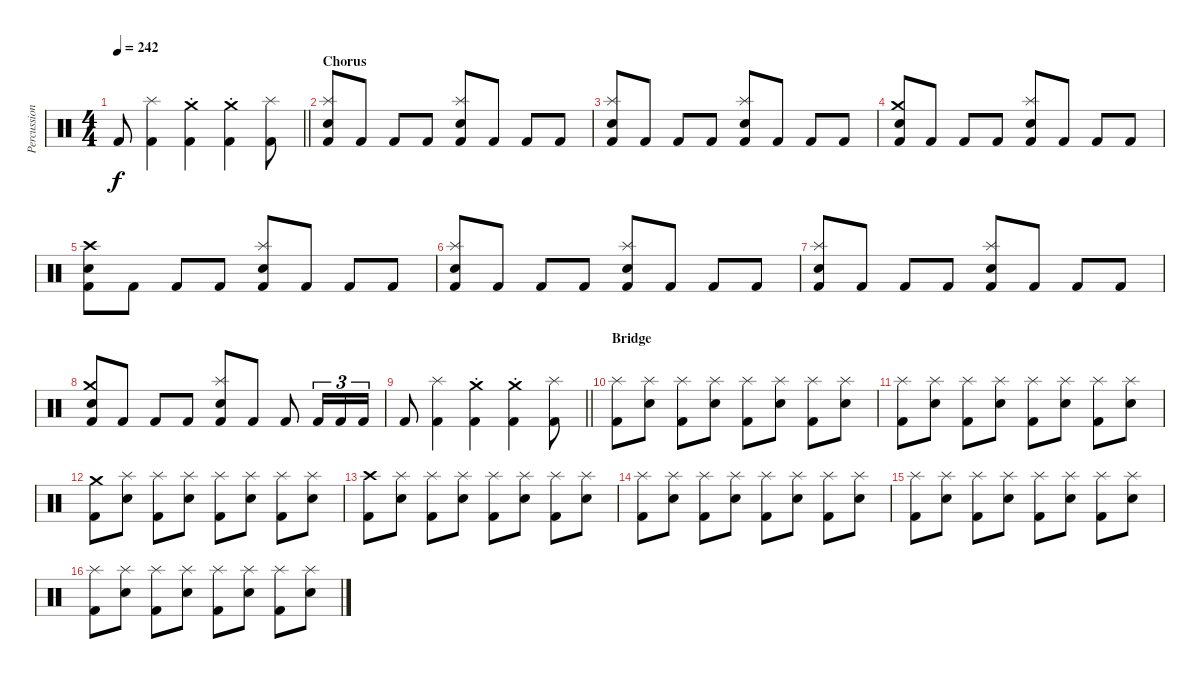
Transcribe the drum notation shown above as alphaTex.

\track ("Percussion" "Percussion") {instrument percussion}
\staff {score}
\articulation defaults
\ts (4 4)
\tempo 242
\clef neutral
\barLineRight lightlight
\ks c "Kick (hit) 2".8{dy f}
("Splash (hit)" "Kick (hit) 2").4 ("Crash medium (hit)"{st} "Kick (hit) 2").4 ("Crash medium (hit)"{st} "Kick (hit) 2").4 ("Splash (hit)" "Kick (hit) 2").8 |
\section ("" "Chorus")
("Splash (hit)" "Snare (hit) 2" "Kick (hit) 2").8 "Kick (hit) 2".8 "Kick (hit) 2".8 "Kick (hit) 2".8 ("Splash (hit)" "Snare (hit) 2" "Kick (hit) 2").8 "Kick (hit) 2".8 "Kick (hit) 2".8 "Kick (hit) 2".8 |
("Splash (hit)" "Snare (hit) 2" "Kick (hit) 2").8 "Kick (hit) 2".8 "Kick (hit) 2".8 "Kick (hit) 2".8 ("Splash (hit)" "Snare (hit) 2" "Kick (hit) 2").8 "Kick (hit) 2".8 "Kick (hit) 2".8 "Kick (hit) 2".8 |
("Crash medium (hit)" "Snare (hit) 2" "Kick (hit) 2").8 "Kick (hit) 2".8 "Kick (hit) 2".8 "Kick (hit) 2".8 ("Splash (hit)" "Snare (hit) 2" "Kick (hit) 2").8 "Kick (hit) 2".8 "Kick (hit) 2".8 "Kick (hit) 2".8 |
("Crash high (hit)" "Snare (hit) 2" "Kick (hit) 2").8 "Kick (hit) 2".8 "Kick (hit) 2".8 "Kick (hit) 2".8 ("Splash (hit)" "Snare (hit) 2" "Kick (hit) 2").8 "Kick (hit) 2".8 "Kick (hit) 2".8 "Kick (hit) 2".8 |
("Splash (hit)" "Snare (hit) 2" "Kick (hit) 2").8 "Kick (hit) 2".8 "Kick (hit) 2".8 "Kick (hit) 2".8 ("Splash (hit)" "Snare (hit) 2" "Kick (hit) 2").8 "Kick (hit) 2".8 "Kick (hit) 2".8 "Kick (hit) 2".8 |
("Splash (hit)" "Snare (hit) 2" "Kick (hit) 2").8 "Kick (hit) 2".8 "Kick (hit) 2".8 "Kick (hit) 2".8 ("Splash (hit)" "Snare (hit) 2" "Kick (hit) 2").8 "Kick (hit) 2".8 "Kick (hit) 2".8 "Kick (hit) 2".8 |
("Crash medium (hit)" "Snare (hit) 2" "Kick (hit) 2").8 "Kick (hit) 2".8 "Kick (hit) 2".8 "Kick (hit) 2".8 ("Splash (hit)" "Snare (hit) 2" "Kick (hit) 2").8 "Kick (hit) 2".8 "Kick (hit) 2".8 "Kick (hit) 2".16{tu (3 2)} "Kick (hit) 2".16{tu (3 2)} "Kick (hit) 2".16{tu (3 2)} |
\barLineRight lightlight "Kick (hit) 2".8
("Splash (hit)" "Kick (hit) 2").4 ("Crash medium (hit)"{st} "Kick (hit) 2").4 ("Crash medium (hit)"{st} "Kick (hit) 2").4 ("Splash (hit)" "Kick (hit) 2").8 |
\section ("" "Bridge")
("Splash (hit)" "Kick (hit) 2").8 ("Splash (hit)" "Snare (hit) 2").8 ("Splash (hit)" "Kick (hit) 2").8 ("Splash (hit)" "Snare (hit) 2").8 ("Splash (hit)" "Kick (hit) 2").8 ("Splash (hit)" "Snare (hit) 2").8 ("Splash (hit)" "Kick (hit) 2").8 ("Splash (hit)" "Snare (hit) 2").8 |
("Splash (hit)" "Kick (hit) 2").8 ("Splash (hit)" "Snare (hit) 2").8 ("Splash (hit)" "Kick (hit) 2").8 ("Splash (hit)" "Snare (hit) 2").8 ("Splash (hit)" "Kick (hit) 2").8 ("Splash (hit)" "Snare (hit) 2").8 ("Splash (hit)" "Kick (hit) 2").8 ("Splash (hit)" "Snare (hit) 2").8 |
("Crash medium (hit)" "Kick (hit) 2").8 ("Splash (hit)" "Snare (hit) 2").8 ("Splash (hit)" "Kick (hit) 2").8 ("Splash (hit)" "Snare (hit) 2").8 ("Splash (hit)" "Kick (hit) 2").8 ("Splash (hit)" "Snare (hit) 2").8 ("Splash (hit)" "Kick (hit) 2").8 ("Splash (hit)" "Snare (hit) 2").8 |
("Crash high (hit)" "Kick (hit) 2").8 ("Splash (hit)" "Snare (hit) 2").8 ("Splash (hit)" "Kick (hit) 2").8 ("Splash (hit)" "Snare (hit) 2").8 ("Splash (hit)" "Kick (hit) 2").8 ("Splash (hit)" "Snare (hit) 2").8 ("Splash (hit)" "Kick (hit) 2").8 ("Splash (hit)" "Snare (hit) 2").8 |
("Splash (hit)" "Kick (hit) 2").8 ("Splash (hit)" "Snare (hit) 2").8 ("Splash (hit)" "Kick (hit) 2").8 ("Splash (hit)" "Snare (hit) 2").8 ("Splash (hit)" "Kick (hit) 2").8 ("Splash (hit)" "Snare (hit) 2").8 ("Splash (hit)" "Kick (hit) 2").8 ("Splash (hit)" "Snare (hit) 2").8 |
("Splash (hit)" "Kick (hit) 2").8 ("Splash (hit)" "Snare (hit) 2").8 ("Splash (hit)" "Kick (hit) 2").8 ("Splash (hit)" "Snare (hit) 2").8 ("Splash (hit)" "Kick (hit) 2").8 ("Splash (hit)" "Snare (hit) 2").8 ("Splash (hit)" "Kick (hit) 2").8 ("Splash (hit)" "Snare (hit) 2").8 |
("Splash (hit)" "Kick (hit) 2").8 ("Splash (hit)" "Snare (hit) 2").8 ("Splash (hit)" "Kick (hit) 2").8 ("Splash (hit)" "Snare (hit) 2").8 ("Splash (hit)" "Kick (hit) 2").8 ("Splash (hit)" "Snare (hit) 2").8 ("Splash (hit)" "Kick (hit) 2").8 ("Splash (hit)" "Snare (hit) 2").8
